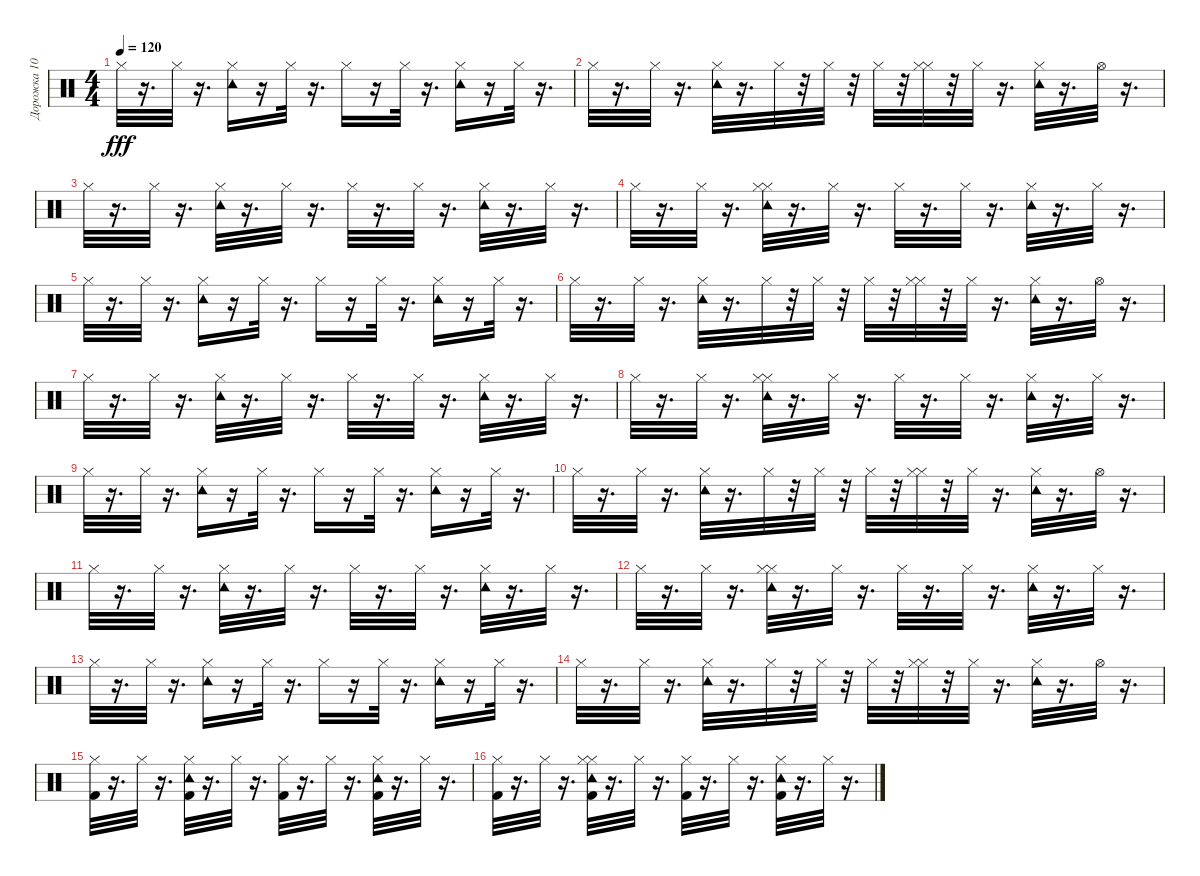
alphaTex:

\track ("Дорожка 10" "Дорожка 10") {instrument percussion}
\staff {score}
\articulation defaults
\ts (4 4)
\tempo 120
\clef neutral
\ks c "Hi-Hat (closed)".32{dy fff}
r.16{d} "Hi-Hat (closed)".32 r.16{d} ("Tambourine (hit)" "Hi-Hat (closed)").16 r.16 "Hi-Hat (closed)".32 r.16{d} "Hi-Hat (closed)".16 r.16 "Hi-Hat (closed)".32 r.16{d} ("Hi-Hat (closed)" "Tambourine (hit)").16 r.16 "Hi-Hat (closed)".32 r.16{d} |
"Hi-Hat (closed)".32 r.16{d} "Hi-Hat (closed)".32 r.16{d} ("Tambourine (hit)" "Hi-Hat (closed)").32 r.16{d} "Hi-Hat (closed)".32 r.32 "Hi-Hat (closed)".32 r.32 "Hi-Hat (closed)".32 r.32 ("Hi-Hat (closed)" "Hi-Hat (closed)").32 r.32 "Hi-Hat (closed)".32 r.16{d} ("Tambourine (hit)" "Hi-Hat (closed)").32 r.16{d} "Hi-Hat (open)".32 r.16{d} |
"Hi-Hat (closed)".32 r.16{d} "Hi-Hat (closed)".32 r.16{d} ("Tambourine (hit)" "Hi-Hat (closed)").32 r.16{d} "Hi-Hat (closed)".32 r.16{d} "Hi-Hat (closed)".32 r.16{d} "Hi-Hat (closed)".32 r.16{d} ("Tambourine (hit)" "Hi-Hat (closed)").32 r.16{d} "Hi-Hat (closed)".32 r.16{d} |
"Hi-Hat (closed)".32 r.16{d} "Hi-Hat (closed)".32 r.16{d} ("Tambourine (hit)" "Hi-Hat (closed)" "Hi-Hat (closed)").32 r.16{d} "Hi-Hat (closed)".32 r.16{d} "Hi-Hat (closed)".32 r.16{d} "Hi-Hat (closed)".32 r.16{d} ("Hi-Hat (closed)" "Tambourine (hit)").32 r.16{d} "Hi-Hat (closed)".32 r.16{d} |
"Hi-Hat (closed)".32 r.16{d} "Hi-Hat (closed)".32 r.16{d} ("Tambourine (hit)" "Hi-Hat (closed)").16 r.16 "Hi-Hat (closed)".32 r.16{d} "Hi-Hat (closed)".16 r.16 "Hi-Hat (closed)".32 r.16{d} ("Hi-Hat (closed)" "Tambourine (hit)").16 r.16 "Hi-Hat (closed)".32 r.16{d} |
"Hi-Hat (closed)".32 r.16{d} "Hi-Hat (closed)".32 r.16{d} ("Tambourine (hit)" "Hi-Hat (closed)").32 r.16{d} "Hi-Hat (closed)".32 r.32 "Hi-Hat (closed)".32 r.32 "Hi-Hat (closed)".32 r.32 ("Hi-Hat (closed)" "Hi-Hat (closed)").32 r.32 "Hi-Hat (closed)".32 r.16{d} ("Tambourine (hit)" "Hi-Hat (closed)").32 r.16{d} "Hi-Hat (open)".32 r.16{d} |
"Hi-Hat (closed)".32 r.16{d} "Hi-Hat (closed)".32 r.16{d} ("Tambourine (hit)" "Hi-Hat (closed)").32 r.16{d} "Hi-Hat (closed)".32 r.16{d} "Hi-Hat (closed)".32 r.16{d} "Hi-Hat (closed)".32 r.16{d} ("Tambourine (hit)" "Hi-Hat (closed)").32 r.16{d} "Hi-Hat (closed)".32 r.16{d} |
"Hi-Hat (closed)".32 r.16{d} "Hi-Hat (closed)".32 r.16{d} ("Tambourine (hit)" "Hi-Hat (closed)" "Hi-Hat (closed)").32 r.16{d} "Hi-Hat (closed)".32 r.16{d} "Hi-Hat (closed)".32 r.16{d} "Hi-Hat (closed)".32 r.16{d} ("Hi-Hat (closed)" "Tambourine (hit)").32 r.16{d} "Hi-Hat (closed)".32 r.16{d} |
"Hi-Hat (closed)".32 r.16{d} "Hi-Hat (closed)".32 r.16{d} ("Tambourine (hit)" "Hi-Hat (closed)").16 r.16 "Hi-Hat (closed)".32 r.16{d} "Hi-Hat (closed)".16 r.16 "Hi-Hat (closed)".32 r.16{d} ("Hi-Hat (closed)" "Tambourine (hit)").16 r.16 "Hi-Hat (closed)".32 r.16{d} |
"Hi-Hat (closed)".32 r.16{d} "Hi-Hat (closed)".32 r.16{d} ("Tambourine (hit)" "Hi-Hat (closed)").32 r.16{d} "Hi-Hat (closed)".32 r.32 "Hi-Hat (closed)".32 r.32 "Hi-Hat (closed)".32 r.32 ("Hi-Hat (closed)" "Hi-Hat (closed)").32 r.32 "Hi-Hat (closed)".32 r.16{d} ("Tambourine (hit)" "Hi-Hat (closed)").32 r.16{d} "Hi-Hat (open)".32 r.16{d} |
"Hi-Hat (closed)".32 r.16{d} "Hi-Hat (closed)".32 r.16{d} ("Tambourine (hit)" "Hi-Hat (closed)").32 r.16{d} "Hi-Hat (closed)".32 r.16{d} "Hi-Hat (closed)".32 r.16{d} "Hi-Hat (closed)".32 r.16{d} ("Tambourine (hit)" "Hi-Hat (closed)").32 r.16{d} "Hi-Hat (closed)".32 r.16{d} |
"Hi-Hat (closed)".32 r.16{d} "Hi-Hat (closed)".32 r.16{d} ("Tambourine (hit)" "Hi-Hat (closed)" "Hi-Hat (closed)").32 r.16{d} "Hi-Hat (closed)".32 r.16{d} "Hi-Hat (closed)".32 r.16{d} "Hi-Hat (closed)".32 r.16{d} ("Hi-Hat (closed)" "Tambourine (hit)").32 r.16{d} "Hi-Hat (closed)".32 r.16{d} |
"Hi-Hat (closed)".32 r.16{d} "Hi-Hat (closed)".32 r.16{d} ("Tambourine (hit)" "Hi-Hat (closed)").16 r.16 "Hi-Hat (closed)".32 r.16{d} "Hi-Hat (closed)".16 r.16 "Hi-Hat (closed)".32 r.16{d} ("Hi-Hat (closed)" "Tambourine (hit)").16 r.16 "Hi-Hat (closed)".32 r.16{d} |
"Hi-Hat (closed)".32 r.16{d} "Hi-Hat (closed)".32 r.16{d} ("Tambourine (hit)" "Hi-Hat (closed)").32 r.16{d} "Hi-Hat (closed)".32 r.32 "Hi-Hat (closed)".32 r.32 "Hi-Hat (closed)".32 r.32 ("Hi-Hat (closed)" "Hi-Hat (closed)").32 r.32 "Hi-Hat (closed)".32 r.16{d} ("Tambourine (hit)" "Hi-Hat (closed)").32 r.16{d} "Hi-Hat (open)".32 r.16{d} |
("Kick (hit) 2" "Hi-Hat (closed)").32 r.16{d} "Hi-Hat (closed)".32 r.16{d} ("Tambourine (hit)" "Kick (hit) 2" "Hi-Hat (closed)").32 r.16{d} "Hi-Hat (closed)".32 r.16{d} ("Hi-Hat (closed)" "Kick (hit) 2").32 r.16{d} "Hi-Hat (closed)".32 r.16{d} ("Tambourine (hit)" "Hi-Hat (closed)" "Kick (hit) 2").32 r.16{d} "Hi-Hat (closed)".32 r.16{d} |
("Kick (hit) 2" "Hi-Hat (closed)").32 r.16{d} "Hi-Hat (closed)".32 r.16{d} ("Tambourine (hit)" "Kick (hit) 2" "Hi-Hat (closed)" "Hi-Hat (closed)").32 r.16{d} "Hi-Hat (closed)".32 r.16{d} ("Hi-Hat (closed)" "Kick (hit) 2").32 r.16{d} "Hi-Hat (closed)".32 r.16{d} ("Kick (hit) 2" "Hi-Hat (closed)" "Tambourine (hit)").32 r.16{d} "Hi-Hat (closed)".32 r.16{d}
